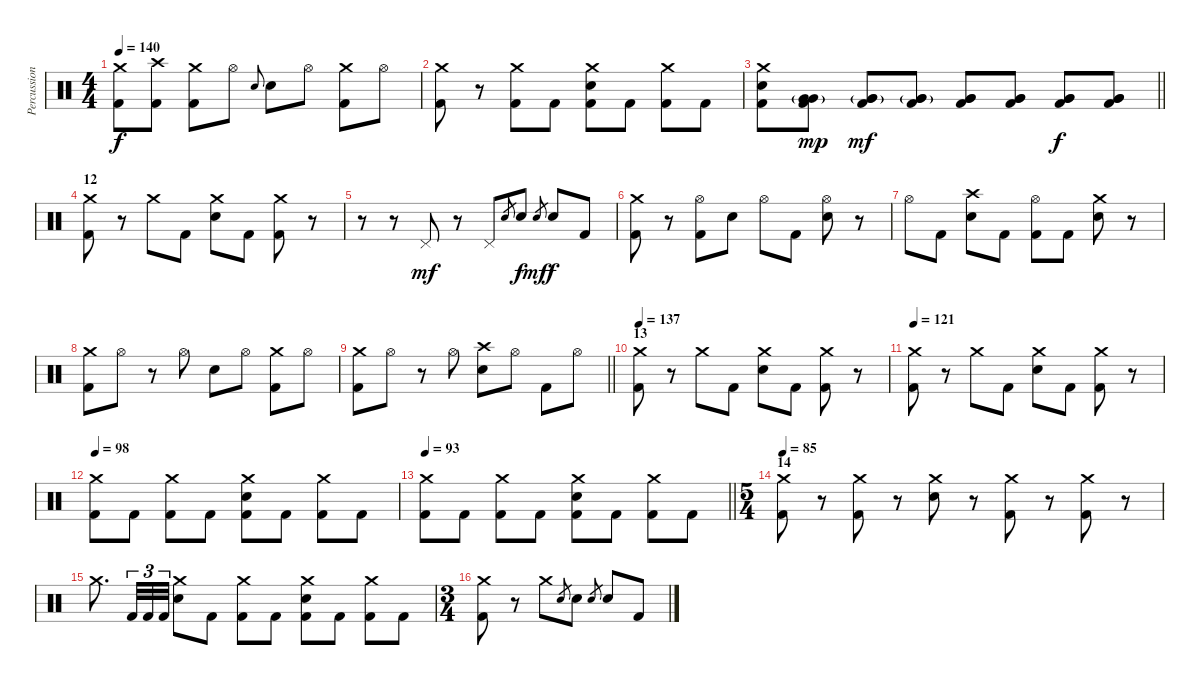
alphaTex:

\track ("Percussion" "Percussion") {instrument percussion}
\staff {score}
\articulation defaults
\ts (4 4)
\tempo 140
\clef neutral
\ks c
("Crash medium (hit)" "Kick (hit) 2").8{dy f} ("Crash high (hit)" "Kick (hit) 2").8 ("Crash medium (hit)" "Kick (hit) 2").8 "Hi-Hat (open)".8 "Snare (hit) 2".8{gr onbeat} "Snare (hit) 2".8 "Hi-Hat (open)".8 ("Crash medium (hit)" "Kick (hit) 2").8 "Hi-Hat (open)".8 |
("Crash medium (hit)" "Kick (hit) 2").8 r.8 ("Crash medium (hit)" "Kick (hit) 2").8 "Kick (hit) 2".8 ("Crash medium (hit)" "Snare (hit) 2" "Kick (hit) 2").8 "Kick (hit) 2".8 ("Crash medium (hit)" "Kick (hit) 2").8 "Kick (hit) 2".8 |
\barLineRight lightlight
("Crash medium (hit)" "Snare (hit) 2" "Kick (hit) 2").8 ("Very Low Tom (hit)"{g} "Very Low Tom (hit)"{g} "Kick (hit) 2").8{bu 60 dy mp} ("Very Low Tom (hit)"{g} "Very Low Tom (hit)"{g} "Kick (hit) 2").8{bu 60 dy mf} ("Very Low Tom (hit)"{g} "Very Low Tom (hit)"{g} "Kick (hit) 2").8{bu 60} ("Very Low Tom (hit)" "Very Low Tom (hit)" "Kick (hit) 2").8{bu 60} ("Very Low Tom (hit)" "Very Low Tom (hit)" "Kick (hit) 2").8{bu 60} ("Very Low Tom (hit)" "Very Low Tom (hit)" "Kick (hit) 2").8{bu 60 dy f} ("Very Low Tom (hit)" "Very Low Tom (hit)" "Kick (hit) 2").8{bu 60} |
\section ("" "12")
("Crash medium (hit)" "Kick (hit) 2").8 r.8 "Crash medium (hit)".8 "Kick (hit) 2".8 ("Crash medium (hit)" "Snare (hit) 2").8 "Kick (hit) 2".8 ("Crash medium (hit)" "Kick (hit) 2").8 r.8 |
r.8 r.8 "Pedal Hi-Hat (hit)".8{dy mf} r.8 "Pedal Hi-Hat (hit)".8 "Snare (hit) 2".8{gr} "Snare (hit) 2".8{dy f} "Snare (hit) 2".8{gr dy mf} "Snare (hit) 2".8{dy f} "Kick (hit) 2".8 |
("Crash medium (hit)" "Kick (hit) 2").8 r.8 ("Hi-Hat (open)" "Kick (hit) 2").8 "Snare (hit) 2".8 "Hi-Hat (open)".8 "Kick (hit) 2".8 ("Hi-Hat (open)" "Snare (hit) 2").8 r.8 |
"Hi-Hat (open)".8 "Kick (hit) 2".8 ("Crash high (hit)" "Snare (hit) 2").8 "Kick (hit) 2".8 ("Hi-Hat (open)" "Kick (hit) 2").8 "Kick (hit) 2".8 ("Crash medium (hit)" "Snare (hit) 2").8 r.8 |
("Crash medium (hit)" "Kick (hit) 2").8 "Hi-Hat (open)".8 r.8 "Hi-Hat (open)".8 "Snare (hit) 2".8 "Hi-Hat (open)".8 ("Crash medium (hit)" "Kick (hit) 2").8 "Hi-Hat (open)".8 |
\barLineRight lightlight
("Crash medium (hit)" "Kick (hit) 2").8 "Hi-Hat (open)".8 r.8 "Hi-Hat (open)".8 ("Crash high (hit)" "Snare (hit) 2").8 "Hi-Hat (open)".8 "Kick (hit) 2".8 "Hi-Hat (open)".8 |
\section ("" "13")
\tempo 137
("Crash medium (hit)" "Kick (hit) 2").8 r.8 "Crash medium (hit)".8 "Kick (hit) 2".8 ("Crash medium (hit)" "Snare (hit) 2").8 "Kick (hit) 2".8 ("Crash medium (hit)" "Kick (hit) 2").8 r.8 |
\tempo 121
("Crash medium (hit)" "Kick (hit) 2").8 r.8 "Crash medium (hit)".8 "Kick (hit) 2".8 ("Crash medium (hit)" "Snare (hit) 2").8 "Kick (hit) 2".8 ("Crash medium (hit)" "Kick (hit) 2").8 r.8 |
\tempo 98
("Crash medium (hit)" "Kick (hit) 2").8 "Kick (hit) 2".8 ("Crash medium (hit)" "Kick (hit) 2").8 "Kick (hit) 2".8 ("Crash medium (hit)" "Snare (hit) 2" "Kick (hit) 2").8 "Kick (hit) 2".8 ("Crash medium (hit)" "Kick (hit) 2").8 "Kick (hit) 2".8 |
\tempo 93
\barLineRight lightlight
("Crash medium (hit)" "Kick (hit) 2").8 "Kick (hit) 2".8 ("Crash medium (hit)" "Kick (hit) 2").8 "Kick (hit) 2".8 ("Crash medium (hit)" "Snare (hit) 2" "Kick (hit) 2").8 "Kick (hit) 2".8 ("Crash medium (hit)" "Kick (hit) 2").8 "Kick (hit) 2".8 |
\ts (5 4)
\section ("" "14")
\tempo 85
("Crash medium (hit)" "Kick (hit) 2").8 r.8 ("Crash medium (hit)" "Kick (hit) 2").8 r.8 ("Crash medium (hit)" "Snare (hit) 2").8 r.8 ("Crash medium (hit)" "Kick (hit) 2").8 r.8 ("Crash medium (hit)" "Kick (hit) 2").8 r.8 |
"Crash medium (hit)".8{d} "Kick (hit) 2".32{tu (3 2)} "Kick (hit) 2".32{tu (3 2)} "Kick (hit) 2".32{tu (3 2)} ("Crash medium (hit)" "Snare (hit) 2").8 "Kick (hit) 2".8 ("Crash medium (hit)" "Kick (hit) 2").8 "Kick (hit) 2".8 ("Crash medium (hit)" "Snare (hit) 2" "Kick (hit) 2").8 "Kick (hit) 2".8 ("Crash medium (hit)" "Kick (hit) 2").8 "Kick (hit) 2".8 |
\ts (3 4)
("Crash medium (hit)" "Kick (hit) 2").8 r.8 "Crash medium (hit)".8 "Snare (hit) 2".8{gr} "Snare (hit) 2".8 "Snare (hit) 2".8{gr} "Snare (hit) 2".8 "Kick (hit) 2".8
